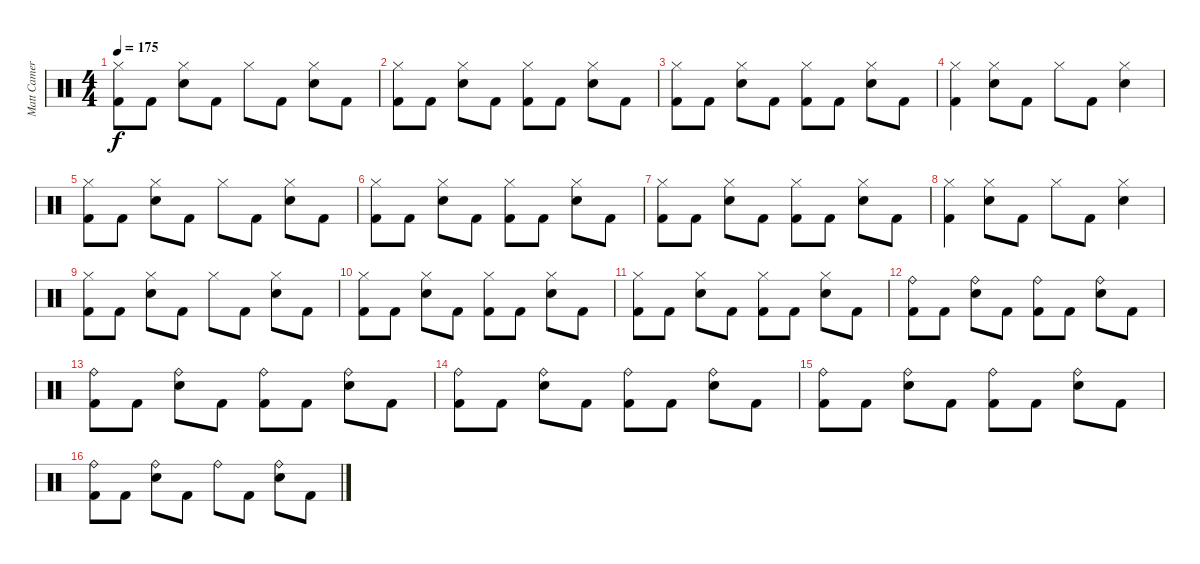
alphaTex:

\track ("Matt Cameron" "Matt Camer") {instrument percussion}
\staff {score}
\articulation defaults
\ts (4 4)
\tempo 175
\clef neutral
\ks c
("Hi-Hat (closed)" "Kick (hit) 2").8{dy f} "Kick (hit) 2".8 ("Hi-Hat (closed)" "Electric Snare (hit)").8 "Kick (hit) 2".8 "Hi-Hat (closed)".8 "Kick (hit) 2".8 ("Hi-Hat (closed)" "Electric Snare (hit)").8 "Kick (hit) 2".8 |
("Hi-Hat (closed)" "Kick (hit) 2").8 "Kick (hit) 2".8 ("Hi-Hat (closed)" "Electric Snare (hit)").8 "Kick (hit) 2".8 ("Hi-Hat (closed)" "Kick (hit) 2").8 "Kick (hit) 2".8 ("Hi-Hat (closed)" "Electric Snare (hit)").8 "Kick (hit) 2".8 |
("Hi-Hat (closed)" "Kick (hit) 2").8 "Kick (hit) 2".8 ("Hi-Hat (closed)" "Electric Snare (hit)").8 "Kick (hit) 2".8 ("Hi-Hat (closed)" "Kick (hit) 2").8 "Kick (hit) 2".8 ("Hi-Hat (closed)" "Electric Snare (hit)").8 "Kick (hit) 2".8 |
("Hi-Hat (closed)" "Kick (hit) 2").4 ("Hi-Hat (closed)" "Electric Snare (hit)").8 "Kick (hit) 2".8 "Hi-Hat (closed)".8 "Kick (hit) 2".8 ("Hi-Hat (closed)" "Electric Snare (hit)").4 |
("Hi-Hat (closed)" "Kick (hit) 2").8 "Kick (hit) 2".8 ("Hi-Hat (closed)" "Electric Snare (hit)").8 "Kick (hit) 2".8 "Hi-Hat (closed)".8 "Kick (hit) 2".8 ("Hi-Hat (closed)" "Electric Snare (hit)").8 "Kick (hit) 2".8 |
("Hi-Hat (closed)" "Kick (hit) 2").8 "Kick (hit) 2".8 ("Hi-Hat (closed)" "Electric Snare (hit)").8 "Kick (hit) 2".8 ("Hi-Hat (closed)" "Kick (hit) 2").8 "Kick (hit) 2".8 ("Hi-Hat (closed)" "Electric Snare (hit)").8 "Kick (hit) 2".8 |
("Hi-Hat (closed)" "Kick (hit) 2").8 "Kick (hit) 2".8 ("Hi-Hat (closed)" "Electric Snare (hit)").8 "Kick (hit) 2".8 ("Hi-Hat (closed)" "Kick (hit) 2").8 "Kick (hit) 2".8 ("Hi-Hat (closed)" "Electric Snare (hit)").8 "Kick (hit) 2".8 |
("Hi-Hat (closed)" "Kick (hit) 2").4 ("Hi-Hat (closed)" "Electric Snare (hit)").8 "Kick (hit) 2".8 "Hi-Hat (closed)".8 "Kick (hit) 2".8 ("Hi-Hat (closed)" "Electric Snare (hit)").4 |
("Hi-Hat (closed)" "Kick (hit) 2").8 "Kick (hit) 2".8 ("Hi-Hat (closed)" "Electric Snare (hit)").8 "Kick (hit) 2".8 "Hi-Hat (closed)".8 "Kick (hit) 2".8 ("Hi-Hat (closed)" "Electric Snare (hit)").8 "Kick (hit) 2".8 |
("Hi-Hat (closed)" "Kick (hit) 2").8 "Kick (hit) 2".8 ("Hi-Hat (closed)" "Electric Snare (hit)").8 "Kick (hit) 2".8 ("Hi-Hat (closed)" "Kick (hit) 2").8 "Kick (hit) 2".8 ("Hi-Hat (closed)" "Electric Snare (hit)").8 "Kick (hit) 2".8 |
("Hi-Hat (closed)" "Kick (hit) 2").8 "Kick (hit) 2".8 ("Hi-Hat (closed)" "Electric Snare (hit)").8 "Kick (hit) 2".8 ("Hi-Hat (closed)" "Kick (hit) 2").8 "Kick (hit) 2".8 ("Hi-Hat (closed)" "Electric Snare (hit)").8 "Kick (hit) 2".8 |
("Ride (bell)" "Kick (hit) 2").8 "Kick (hit) 2".8 ("Ride (bell)" "Electric Snare (hit)").8 "Kick (hit) 2".8 ("Ride (bell)" "Kick (hit) 2").8 "Kick (hit) 2".8 ("Ride (bell)" "Electric Snare (hit)").8 "Kick (hit) 2".8 |
("Ride (bell)" "Kick (hit) 2").8 "Kick (hit) 2".8 ("Ride (bell)" "Electric Snare (hit)").8 "Kick (hit) 2".8 ("Ride (bell)" "Kick (hit) 2").8 "Kick (hit) 2".8 ("Ride (bell)" "Electric Snare (hit)").8 "Kick (hit) 2".8 |
("Ride (bell)" "Kick (hit) 2").8 "Kick (hit) 2".8 ("Ride (bell)" "Electric Snare (hit)").8 "Kick (hit) 2".8 ("Ride (bell)" "Kick (hit) 2").8 "Kick (hit) 2".8 ("Ride (bell)" "Electric Snare (hit)").8 "Kick (hit) 2".8 |
("Ride (bell)" "Kick (hit) 2").8 "Kick (hit) 2".8 ("Ride (bell)" "Electric Snare (hit)").8 "Kick (hit) 2".8 ("Ride (bell)" "Kick (hit) 2").8 "Kick (hit) 2".8 ("Ride (bell)" "Electric Snare (hit)").8 "Kick (hit) 2".8 |
("Ride (bell)" "Kick (hit) 2").8 "Kick (hit) 2".8 ("Ride (bell)" "Electric Snare (hit)").8 "Kick (hit) 2".8 "Ride (bell)".8 "Kick (hit) 2".8 ("Ride (bell)" "Electric Snare (hit)").8 "Kick (hit) 2".8
